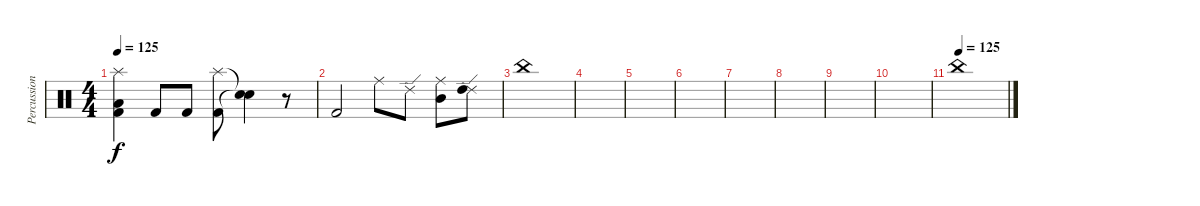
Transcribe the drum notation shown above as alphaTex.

\track ("Percussion" "Percussion") {instrument percussion}
\staff {score}
\articulation defaults
\ts (4 4)
\tempo 125
\clef neutral
\ks c
("Kick (hit) 2" "Low Floor Tom (hit)" "Splash (hit)").4{dy f} "Kick (hit) 2".8 "Kick (hit) 2".8 ("Kick (hit) 2" "Splash (hit)").8 ("Snare (hit)"{t} "Snare (hit)"{t}).4 r.8 |
"Kick (hit) 2".2 "Ride (middle)".8 "Ride (edge) 2".8 ("Ride (middle)" "Mid Tom (hit)").8 ("Ride (edge) 2" "High Tom (hit)").8 |
"China (hit)".1 |
|
|
|
|
|
|
|
\tempo (125)
"China (hit)".1
